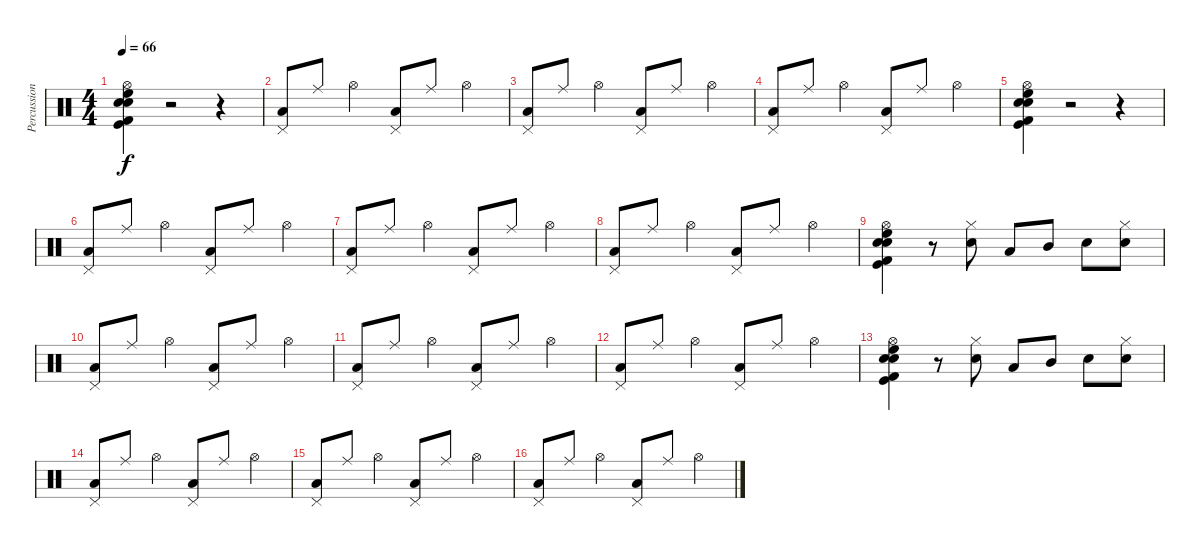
\track ("Percussions" "Percussion") {instrument percussion}
\staff {score}
\articulation defaults
\ts (4 4)
\tempo 66
\clef neutral
\ks c
("Electric Snare (hit)" "Kick (hit) 2" "Snare (hit) 2" "High Floor Tom (hit)" "Kick (hit)" "Hi-Hat (open)").4{dy f} r.2 r.4 |
("Pedal Hi-Hat (hit)" "Low Tom (hit)").8 "Ride (middle)".8 "Hi-Hat (open)".4 ("Pedal Hi-Hat (hit)" "Low Tom (hit)").8 "Ride (middle)".8 "Hi-Hat (open)".4 |
("Pedal Hi-Hat (hit)" "Low Tom (hit)").8 "Ride (middle)".8 "Hi-Hat (open)".4 ("Pedal Hi-Hat (hit)" "Low Tom (hit)").8 "Ride (middle)".8 "Hi-Hat (open)".4 |
("Pedal Hi-Hat (hit)" "Low Tom (hit)").8 "Ride (middle)".8 "Hi-Hat (open)".4 ("Pedal Hi-Hat (hit)" "Low Tom (hit)").8 "Ride (middle)".8 "Hi-Hat (open)".4 |
("Electric Snare (hit)" "Kick (hit) 2" "Snare (hit) 2" "High Floor Tom (hit)" "Kick (hit)" "Hi-Hat (open)").4 r.2 r.4 |
("Pedal Hi-Hat (hit)" "Low Tom (hit)").8 "Ride (middle)".8 "Hi-Hat (open)".4 ("Pedal Hi-Hat (hit)" "Low Tom (hit)").8 "Ride (middle)".8 "Hi-Hat (open)".4 |
("Pedal Hi-Hat (hit)" "Low Tom (hit)").8 "Ride (middle)".8 "Hi-Hat (open)".4 ("Pedal Hi-Hat (hit)" "Low Tom (hit)").8 "Ride (middle)".8 "Hi-Hat (open)".4 |
("Pedal Hi-Hat (hit)" "Low Tom (hit)").8 "Ride (middle)".8 "Hi-Hat (open)".4 ("Pedal Hi-Hat (hit)" "Low Tom (hit)").8 "Ride (middle)".8 "Hi-Hat (open)".4 |
("Electric Snare (hit)" "Kick (hit) 2" "Snare (hit) 2" "High Floor Tom (hit)" "Kick (hit)" "Hi-Hat (open)").4 r.8 ("Hi-Hat (closed)" "Electric Snare (hit)").8 "Low Tom (hit)".8 "Mid Tom (hit)".8 "Snare (hit) 2".8 ("Hi-Hat (closed)" "Electric Snare (hit)").8 |
("Pedal Hi-Hat (hit)" "Low Tom (hit)").8 "Ride (middle)".8 "Hi-Hat (open)".4 ("Pedal Hi-Hat (hit)" "Low Tom (hit)").8 "Ride (middle)".8 "Hi-Hat (open)".4 |
("Pedal Hi-Hat (hit)" "Low Tom (hit)").8 "Ride (middle)".8 "Hi-Hat (open)".4 ("Pedal Hi-Hat (hit)" "Low Tom (hit)").8 "Ride (middle)".8 "Hi-Hat (open)".4 |
("Pedal Hi-Hat (hit)" "Low Tom (hit)").8 "Ride (middle)".8 "Hi-Hat (open)".4 ("Pedal Hi-Hat (hit)" "Low Tom (hit)").8 "Ride (middle)".8 "Hi-Hat (open)".4 |
("Electric Snare (hit)" "Kick (hit) 2" "Snare (hit) 2" "High Floor Tom (hit)" "Kick (hit)" "Hi-Hat (open)").4 r.8 ("Hi-Hat (closed)" "Electric Snare (hit)").8 "Low Tom (hit)".8 "Mid Tom (hit)".8 "Snare (hit) 2".8 ("Hi-Hat (closed)" "Electric Snare (hit)").8 |
("Pedal Hi-Hat (hit)" "Low Tom (hit)").8 "Ride (middle)".8 "Hi-Hat (open)".4 ("Pedal Hi-Hat (hit)" "Low Tom (hit)").8 "Ride (middle)".8 "Hi-Hat (open)".4 |
("Pedal Hi-Hat (hit)" "Low Tom (hit)").8 "Ride (middle)".8 "Hi-Hat (open)".4 ("Pedal Hi-Hat (hit)" "Low Tom (hit)").8 "Ride (middle)".8 "Hi-Hat (open)".4 |
("Pedal Hi-Hat (hit)" "Low Tom (hit)").8 "Ride (middle)".8 "Hi-Hat (open)".4 ("Pedal Hi-Hat (hit)" "Low Tom (hit)").8 "Ride (middle)".8 "Hi-Hat (open)".4
